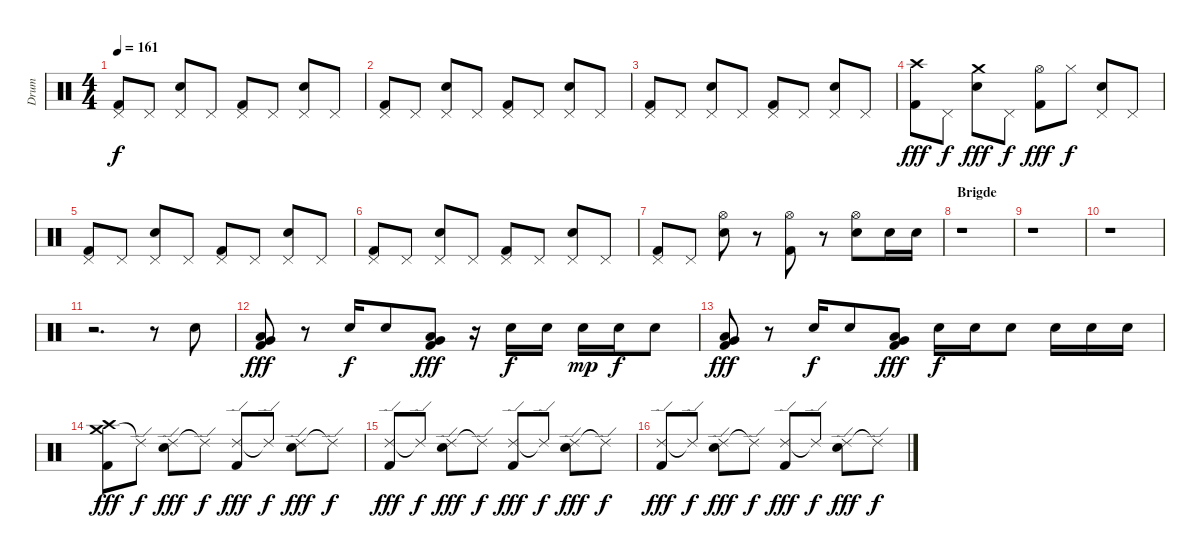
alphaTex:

\track ("Drum" "Drum") {instrument percussion}
\staff {score}
\articulation defaults
\ts (4 4)
\tempo 161
\clef neutral
\ks c
("Pedal Hi-Hat (hit)" "Kick (hit) 2").8{dy f} "Pedal Hi-Hat (hit)".8 ("Pedal Hi-Hat (hit)" "Snare (hit) 2").8 "Pedal Hi-Hat (hit)".8 ("Pedal Hi-Hat (hit)" "Kick (hit) 2").8 "Pedal Hi-Hat (hit)".8 ("Pedal Hi-Hat (hit)" "Snare (hit) 2").8 "Pedal Hi-Hat (hit)".8 |
("Pedal Hi-Hat (hit)" "Kick (hit) 2").8 "Pedal Hi-Hat (hit)".8 ("Pedal Hi-Hat (hit)" "Snare (hit) 2").8 "Pedal Hi-Hat (hit)".8 ("Pedal Hi-Hat (hit)" "Kick (hit) 2").8 "Pedal Hi-Hat (hit)".8 ("Pedal Hi-Hat (hit)" "Snare (hit) 2").8 "Pedal Hi-Hat (hit)".8 |
("Pedal Hi-Hat (hit)" "Kick (hit) 2").8 "Pedal Hi-Hat (hit)".8 ("Pedal Hi-Hat (hit)" "Snare (hit) 2").8 "Pedal Hi-Hat (hit)".8 ("Pedal Hi-Hat (hit)" "Kick (hit) 2").8 "Pedal Hi-Hat (hit)".8 ("Pedal Hi-Hat (hit)" "Snare (hit) 2").8 "Pedal Hi-Hat (hit)".8 |
("Crash high (hit)" "Kick (hit) 2").8{dy fff} "Pedal Hi-Hat (hit)".8{dy f} ("Crash medium (hit)" "Snare (hit) 2").8{dy fff} "Pedal Hi-Hat (hit)".8{dy f} ("Hi-Hat (open)" "Kick (hit) 2").8{dy fff} "Hi-Hat (closed)".8{dy f} ("Pedal Hi-Hat (hit)" "Snare (hit) 2").8 "Pedal Hi-Hat (hit)".8 |
("Pedal Hi-Hat (hit)" "Kick (hit) 2").8 "Pedal Hi-Hat (hit)".8 ("Pedal Hi-Hat (hit)" "Snare (hit) 2").8 "Pedal Hi-Hat (hit)".8 ("Pedal Hi-Hat (hit)" "Kick (hit) 2").8 "Pedal Hi-Hat (hit)".8 ("Pedal Hi-Hat (hit)" "Snare (hit) 2").8 "Pedal Hi-Hat (hit)".8 |
("Pedal Hi-Hat (hit)" "Kick (hit) 2").8 "Pedal Hi-Hat (hit)".8 ("Pedal Hi-Hat (hit)" "Snare (hit) 2").8 "Pedal Hi-Hat (hit)".8 ("Pedal Hi-Hat (hit)" "Kick (hit) 2").8 "Pedal Hi-Hat (hit)".8 ("Pedal Hi-Hat (hit)" "Snare (hit) 2").8 "Pedal Hi-Hat (hit)".8 |
("Pedal Hi-Hat (hit)" "Kick (hit) 2").8 "Pedal Hi-Hat (hit)".8 ("Hi-Hat (open)" "Snare (hit) 2").8 r.8 ("Hi-Hat (open)" "Kick (hit) 2").8 r.8 ("Hi-Hat (open)" "Snare (hit) 2").8 "Snare (hit) 2".16 "Snare (hit) 2".16 |
\section ("" "Brigde")
r.1 |
r.1 |
r.1 |
r.2{d} r.8 "Snare (hit) 2".8 |
("Low Tom (hit)" "Very Low Tom (hit)" "Kick (hit) 2").8{dy fff} r.8 "Snare (hit) 2".16{dy f} "Snare (hit) 2".8 ("Low Tom (hit)" "Very Low Tom (hit)" "Kick (hit) 2").8{dy fff} r.16 "Snare (hit) 2".16{dy f} "Snare (hit) 2".16 "Snare (hit) 2".16{dy mp} "Snare (hit) 2".16{dy f} "Snare (hit) 2".8 |
("Low Tom (hit)" "Very Low Tom (hit)" "Kick (hit) 2").8{dy fff} r.8 "Snare (hit) 2".16{dy f} "Snare (hit) 2".8 ("Low Tom (hit)" "Very Low Tom (hit)" "Kick (hit) 2").8{dy fff} "Snare (hit) 2".16{dy f} "Snare (hit) 2".16 "Snare (hit) 2".8 "Snare (hit) 2".16 "Snare (hit) 2".16 "Snare (hit) 2".16 |
("Crash medium (hit)" "Crash high (hit)" "Kick (hit) 2").8{dy fff} "Ride (edge) 2"{t}.8{dy f} ("Ride (edge) 2" "Snare (hit) 2").8{dy fff} "Ride (edge) 2"{t}.8{dy f} ("Ride (edge) 2" "Kick (hit) 2").8{dy fff} "Ride (edge) 2"{t}.8{dy f} ("Ride (edge) 2" "Snare (hit) 2").8{dy fff} "Ride (edge) 2"{t}.8{dy f} |
("Ride (edge) 2" "Kick (hit) 2").8{dy fff} "Ride (edge) 2"{t}.8{dy f} ("Ride (edge) 2" "Snare (hit) 2").8{dy fff} "Ride (edge) 2"{t}.8{dy f} ("Ride (edge) 2" "Kick (hit) 2").8{dy fff} "Ride (edge) 2"{t}.8{dy f} ("Ride (edge) 2" "Snare (hit) 2").8{dy fff} "Ride (edge) 2"{t}.8{dy f} |
("Ride (edge) 2" "Kick (hit) 2").8{dy fff} "Ride (edge) 2"{t}.8{dy f} ("Ride (edge) 2" "Snare (hit) 2").8{dy fff} "Ride (edge) 2"{t}.8{dy f} ("Ride (edge) 2" "Kick (hit) 2").8{dy fff} "Ride (edge) 2"{t}.8{dy f} ("Ride (edge) 2" "Snare (hit) 2").8{dy fff} "Ride (edge) 2"{t}.8{dy f}
